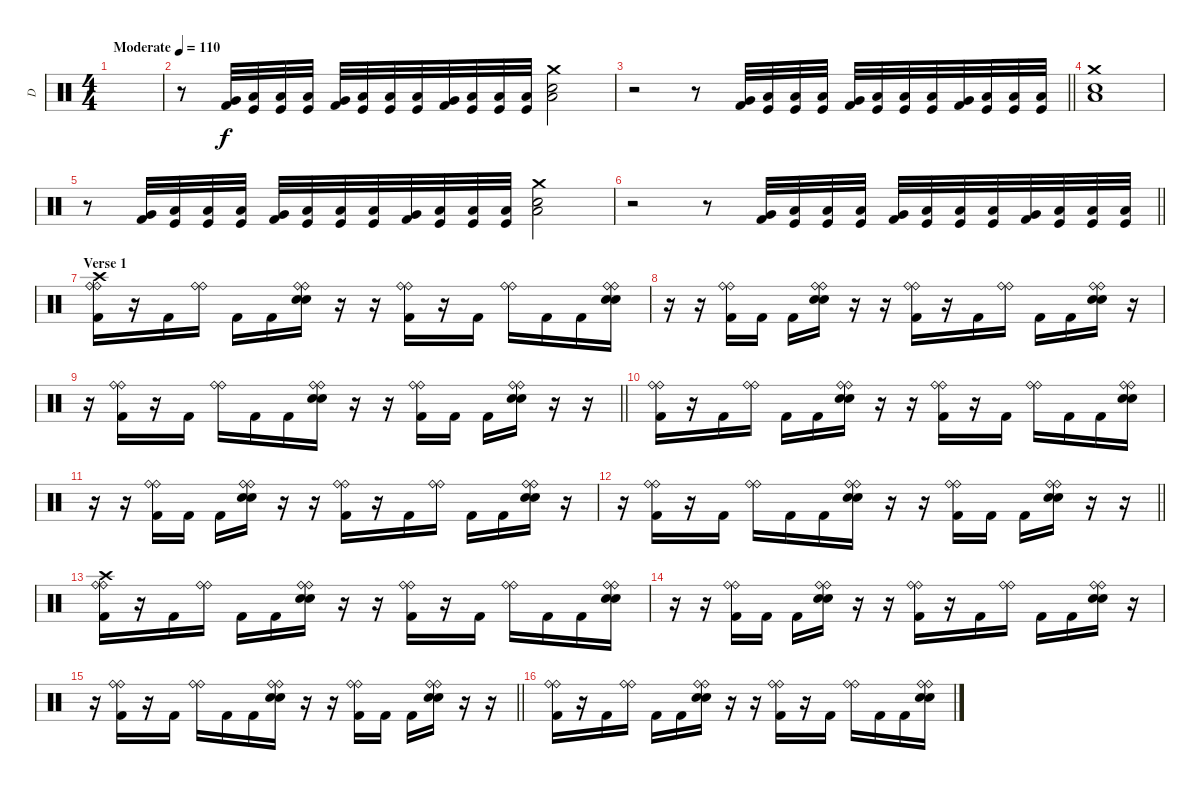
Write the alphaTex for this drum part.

\track ("D" "D") {instrument percussion}
\staff {score}
\articulation defaults
\ts (4 4)
\tempo (110 "Moderate")
\clef neutral
\ks c
|
r.8 ("Very Low Tom (hit)" "Kick (hit) 2").32 ("Kick (hit)" "Low Floor Tom (hit)").32 ("Kick (hit)" "Low Floor Tom (hit)").32 ("Kick (hit)" "Low Floor Tom (hit)").32 ("Very Low Tom (hit)" "Kick (hit) 2").32 ("Kick (hit)" "Low Floor Tom (hit)").32 ("Kick (hit)" "Low Floor Tom (hit)").32 ("Kick (hit)" "Low Floor Tom (hit)").32 ("Very Low Tom (hit)" "Kick (hit) 2").32 ("Kick (hit)" "Low Floor Tom (hit)").32 ("Kick (hit)" "Low Floor Tom (hit)").32 ("Kick (hit)" "Low Floor Tom (hit)").32 ("Crash medium (hit)" "Electric Snare (hit)" "Low Tom (hit)").2 |
\barLineRight lightlight
r.2 r.8 ("Very Low Tom (hit)" "Kick (hit) 2").32 ("Kick (hit)" "Low Floor Tom (hit)").32 ("Kick (hit)" "Low Floor Tom (hit)").32 ("Kick (hit)" "Low Floor Tom (hit)").32 ("Very Low Tom (hit)" "Kick (hit) 2").32 ("Kick (hit)" "Low Floor Tom (hit)").32 ("Kick (hit)" "Low Floor Tom (hit)").32 ("Kick (hit)" "Low Floor Tom (hit)").32 ("Very Low Tom (hit)" "Kick (hit) 2").32 ("Kick (hit)" "Low Floor Tom (hit)").32 ("Kick (hit)" "Low Floor Tom (hit)").32 ("Kick (hit)" "Low Floor Tom (hit)").32 |
("Crash medium (hit)" "Electric Snare (hit)" "Low Tom (hit)").1 |
r.8 ("Very Low Tom (hit)" "Kick (hit) 2").32 ("Kick (hit)" "Low Floor Tom (hit)").32 ("Kick (hit)" "Low Floor Tom (hit)").32 ("Kick (hit)" "Low Floor Tom (hit)").32 ("Very Low Tom (hit)" "Kick (hit) 2").32 ("Kick (hit)" "Low Floor Tom (hit)").32 ("Kick (hit)" "Low Floor Tom (hit)").32 ("Kick (hit)" "Low Floor Tom (hit)").32 ("Very Low Tom (hit)" "Kick (hit) 2").32 ("Kick (hit)" "Low Floor Tom (hit)").32 ("Kick (hit)" "Low Floor Tom (hit)").32 ("Kick (hit)" "Low Floor Tom (hit)").32 ("Crash medium (hit)" "Electric Snare (hit)" "Low Tom (hit)").2 |
\barLineRight lightlight
r.2 r.8 ("Very Low Tom (hit)" "Kick (hit) 2").32 ("Kick (hit)" "Low Floor Tom (hit)").32 ("Kick (hit)" "Low Floor Tom (hit)").32 ("Kick (hit)" "Low Floor Tom (hit)").32 ("Very Low Tom (hit)" "Kick (hit) 2").32 ("Kick (hit)" "Low Floor Tom (hit)").32 ("Kick (hit)" "Low Floor Tom (hit)").32 ("Kick (hit)" "Low Floor Tom (hit)").32 ("Very Low Tom (hit)" "Kick (hit) 2").32 ("Kick (hit)" "Low Floor Tom (hit)").32 ("Kick (hit)" "Low Floor Tom (hit)").32 ("Kick (hit)" "Low Floor Tom (hit)").32 |
\section ("" "Verse 1")
("Crash high (hit)" "Ride (bell)" "Ride (bell)" "Kick (hit) 2").16 r.16 "Kick (hit) 2".16 ("Ride (bell)" "Ride (bell)").16 "Kick (hit) 2".16 "Kick (hit) 2".16 ("Electric Snare (hit)" "Electric Snare (hit)" "Ride (bell)" "Ride (bell)").16 r.16 r.16 ("Ride (bell)" "Ride (bell)" "Kick (hit) 2").16 r.16 "Kick (hit) 2".16 ("Ride (bell)" "Ride (bell)").16 "Kick (hit) 2".16 "Kick (hit) 2".16 ("Electric Snare (hit)" "Electric Snare (hit)" "Ride (bell)" "Ride (bell)").16 |
r.16 r.16 ("Ride (bell)" "Ride (bell)" "Kick (hit) 2").16 "Kick (hit) 2".16 "Kick (hit) 2".16 ("Electric Snare (hit)" "Electric Snare (hit)" "Ride (bell)" "Ride (bell)").16 r.16 r.16 ("Ride (bell)" "Ride (bell)" "Kick (hit) 2").16 r.16 "Kick (hit) 2".16 ("Ride (bell)" "Ride (bell)").16 "Kick (hit) 2".16 "Kick (hit) 2".16 ("Electric Snare (hit)" "Electric Snare (hit)" "Ride (bell)" "Ride (bell)").16 r.16 |
\barLineRight lightlight
r.16 ("Ride (bell)" "Ride (bell)" "Kick (hit) 2").16 r.16 "Kick (hit) 2".16 ("Ride (bell)" "Ride (bell)").16 "Kick (hit) 2".16 "Kick (hit) 2".16 ("Electric Snare (hit)" "Electric Snare (hit)" "Ride (bell)" "Ride (bell)").16 r.16 r.16 ("Ride (bell)" "Ride (bell)" "Kick (hit) 2").16 "Kick (hit) 2".16 "Kick (hit) 2".16 ("Electric Snare (hit)" "Electric Snare (hit)" "Ride (bell)" "Ride (bell)").16 r.16 r.16 |
("Ride (bell)" "Ride (bell)" "Kick (hit) 2").16 r.16 "Kick (hit) 2".16 ("Ride (bell)" "Ride (bell)").16 "Kick (hit) 2".16 "Kick (hit) 2".16 ("Electric Snare (hit)" "Electric Snare (hit)" "Ride (bell)" "Ride (bell)").16 r.16 r.16 ("Ride (bell)" "Ride (bell)" "Kick (hit) 2").16 r.16 "Kick (hit) 2".16 ("Ride (bell)" "Ride (bell)").16 "Kick (hit) 2".16 "Kick (hit) 2".16 ("Electric Snare (hit)" "Electric Snare (hit)" "Ride (bell)" "Ride (bell)").16 |
r.16 r.16 ("Ride (bell)" "Ride (bell)" "Kick (hit) 2").16 "Kick (hit) 2".16 "Kick (hit) 2".16 ("Electric Snare (hit)" "Electric Snare (hit)" "Ride (bell)" "Ride (bell)").16 r.16 r.16 ("Ride (bell)" "Ride (bell)" "Kick (hit) 2").16 r.16 "Kick (hit) 2".16 ("Ride (bell)" "Ride (bell)").16 "Kick (hit) 2".16 "Kick (hit) 2".16 ("Electric Snare (hit)" "Electric Snare (hit)" "Ride (bell)" "Ride (bell)").16 r.16 |
\barLineRight lightlight
r.16 ("Ride (bell)" "Ride (bell)" "Kick (hit) 2").16 r.16 "Kick (hit) 2".16 ("Ride (bell)" "Ride (bell)").16 "Kick (hit) 2".16 "Kick (hit) 2".16 ("Electric Snare (hit)" "Electric Snare (hit)" "Ride (bell)" "Ride (bell)").16 r.16 r.16 ("Ride (bell)" "Ride (bell)" "Kick (hit) 2").16 "Kick (hit) 2".16 "Kick (hit) 2".16 ("Electric Snare (hit)" "Electric Snare (hit)" "Ride (bell)" "Ride (bell)").16 r.16 r.16 |
("Crash high (hit)" "Ride (bell)" "Ride (bell)" "Kick (hit) 2").16 r.16 "Kick (hit) 2".16 ("Ride (bell)" "Ride (bell)").16 "Kick (hit) 2".16 "Kick (hit) 2".16 ("Electric Snare (hit)" "Electric Snare (hit)" "Ride (bell)" "Ride (bell)").16 r.16 r.16 ("Ride (bell)" "Ride (bell)" "Kick (hit) 2").16 r.16 "Kick (hit) 2".16 ("Ride (bell)" "Ride (bell)").16 "Kick (hit) 2".16 "Kick (hit) 2".16 ("Electric Snare (hit)" "Electric Snare (hit)" "Ride (bell)" "Ride (bell)").16 |
r.16 r.16 ("Ride (bell)" "Ride (bell)" "Kick (hit) 2").16 "Kick (hit) 2".16 "Kick (hit) 2".16 ("Electric Snare (hit)" "Electric Snare (hit)" "Ride (bell)" "Ride (bell)").16 r.16 r.16 ("Ride (bell)" "Ride (bell)" "Kick (hit) 2").16 r.16 "Kick (hit) 2".16 ("Ride (bell)" "Ride (bell)").16 "Kick (hit) 2".16 "Kick (hit) 2".16 ("Electric Snare (hit)" "Electric Snare (hit)" "Ride (bell)" "Ride (bell)").16 r.16 |
\barLineRight lightlight
r.16 ("Ride (bell)" "Ride (bell)" "Kick (hit) 2").16 r.16 "Kick (hit) 2".16 ("Ride (bell)" "Ride (bell)").16 "Kick (hit) 2".16 "Kick (hit) 2".16 ("Electric Snare (hit)" "Electric Snare (hit)" "Ride (bell)" "Ride (bell)").16 r.16 r.16 ("Ride (bell)" "Ride (bell)" "Kick (hit) 2").16 "Kick (hit) 2".16 "Kick (hit) 2".16 ("Electric Snare (hit)" "Electric Snare (hit)" "Ride (bell)" "Ride (bell)").16 r.16 r.16 |
("Ride (bell)" "Ride (bell)" "Kick (hit) 2").16 r.16 "Kick (hit) 2".16 ("Ride (bell)" "Ride (bell)").16 "Kick (hit) 2".16 "Kick (hit) 2".16 ("Electric Snare (hit)" "Electric Snare (hit)" "Ride (bell)" "Ride (bell)").16 r.16 r.16 ("Ride (bell)" "Ride (bell)" "Kick (hit) 2").16 r.16 "Kick (hit) 2".16 ("Ride (bell)" "Ride (bell)").16 "Kick (hit) 2".16 "Kick (hit) 2".16 ("Electric Snare (hit)" "Electric Snare (hit)" "Ride (bell)" "Ride (bell)").16
